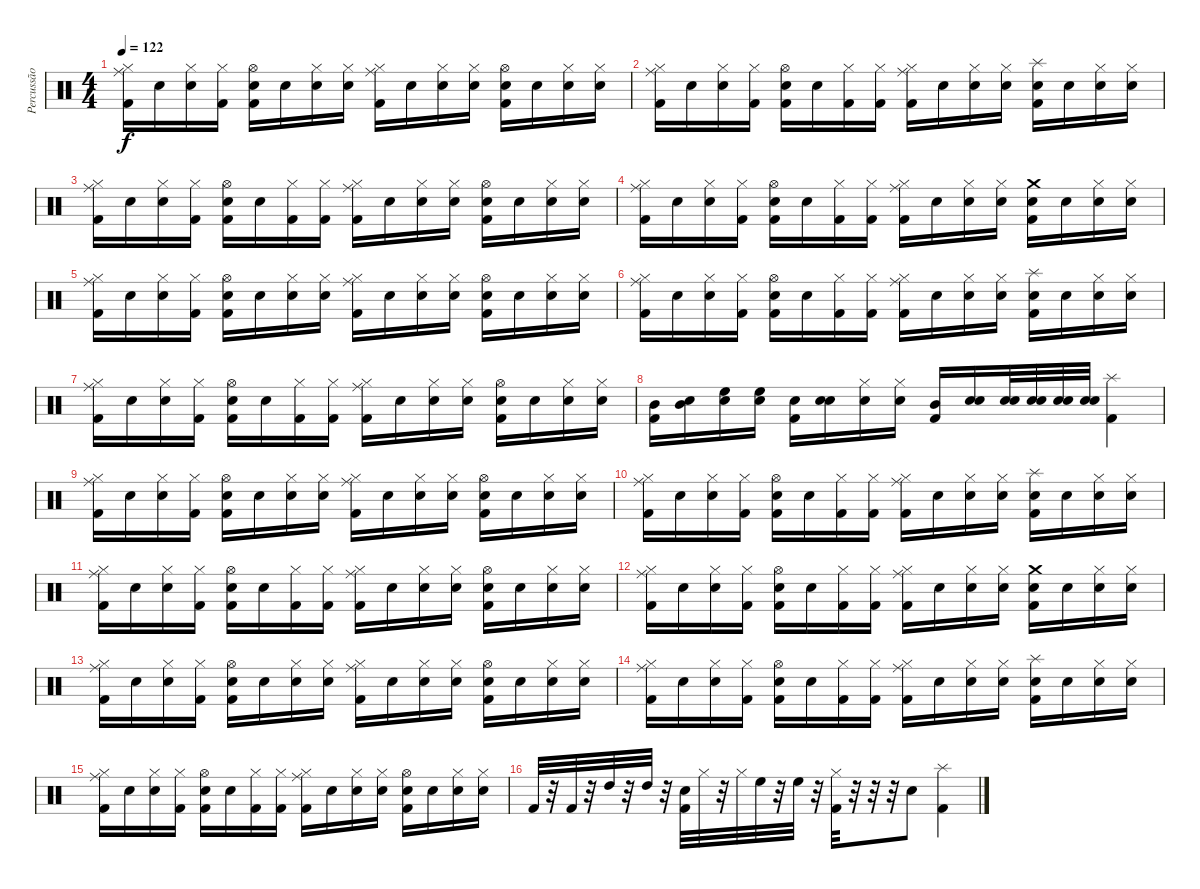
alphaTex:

\track ("Percussão" "Percussão") {instrument percussion}
\staff {score}
\articulation defaults
\ts (4 4)
\tempo 122
\clef neutral
\ks c
("Kick (hit) 2" "Hi-Hat (closed)" "Ride (middle)").16{dy f} "Snare (hit)".16 ("Snare (hit)" "Hi-Hat (closed)").16 ("Kick (hit) 2" "Hi-Hat (closed)").16 ("Kick (hit) 2" "Electric Snare (hit)" "Hi-Hat (open)").16 "Snare (hit)".16 ("Snare (hit)" "Hi-Hat (closed)").16 ("Snare (hit)" "Hi-Hat (closed)").16 ("Kick (hit) 2" "Hi-Hat (closed)" "Ride (middle)").16 "Snare (hit)".16 ("Snare (hit)" "Hi-Hat (closed)").16 ("Snare (hit)" "Hi-Hat (closed)").16 ("Kick (hit) 2" "Electric Snare (hit)" "Hi-Hat (open)").16 "Snare (hit)".16 ("Snare (hit)" "Hi-Hat (closed)").16 ("Snare (hit)" "Hi-Hat (closed)").16 |
("Kick (hit) 2" "Hi-Hat (closed)" "Ride (middle)").16 "Snare (hit)".16 ("Snare (hit)" "Hi-Hat (closed)").16 ("Kick (hit) 2" "Hi-Hat (closed)").16 ("Kick (hit) 2" "Electric Snare (hit)" "Hi-Hat (open)").16 "Snare (hit)".16 ("Kick (hit) 2" "Hi-Hat (closed)").16 ("Kick (hit) 2" "Hi-Hat (closed)").16 ("Kick (hit) 2" "Hi-Hat (closed)" "Ride (middle)").16 "Snare (hit)".16 ("Snare (hit)" "Hi-Hat (closed)").16 ("Snare (hit)" "Hi-Hat (closed)").16 ("Kick (hit) 2" "Electric Snare (hit)" "Splash (hit)").16 "Snare (hit)".16 ("Snare (hit)" "Hi-Hat (closed)").16 ("Snare (hit)" "Hi-Hat (closed)").16 |
("Kick (hit) 2" "Hi-Hat (closed)" "Ride (middle)").16 "Snare (hit)".16 ("Snare (hit)" "Hi-Hat (closed)").16 ("Kick (hit) 2" "Hi-Hat (closed)").16 ("Kick (hit) 2" "Electric Snare (hit)" "Hi-Hat (open)").16 "Snare (hit)".16 ("Kick (hit) 2" "Hi-Hat (closed)").16 ("Kick (hit) 2" "Hi-Hat (closed)").16 ("Kick (hit) 2" "Hi-Hat (closed)" "Ride (middle)").16 "Snare (hit)".16 ("Snare (hit)" "Hi-Hat (closed)").16 ("Snare (hit)" "Hi-Hat (closed)").16 ("Kick (hit) 2" "Electric Snare (hit)" "Hi-Hat (open)").16 "Snare (hit)".16 ("Snare (hit)" "Hi-Hat (closed)").16 ("Snare (hit)" "Hi-Hat (closed)").16 |
("Kick (hit) 2" "Hi-Hat (closed)" "Ride (middle)").16 "Snare (hit)".16 ("Snare (hit)" "Hi-Hat (closed)").16 ("Kick (hit) 2" "Hi-Hat (closed)").16 ("Kick (hit) 2" "Electric Snare (hit)" "Hi-Hat (open)").16 "Snare (hit)".16 ("Kick (hit) 2" "Hi-Hat (closed)").16 ("Kick (hit) 2" "Hi-Hat (closed)").16 ("Kick (hit) 2" "Hi-Hat (closed)" "Ride (middle)").16 "Snare (hit)".16 ("Snare (hit)" "Hi-Hat (closed)").16 ("Snare (hit)" "Hi-Hat (closed)").16 ("Kick (hit) 2" "Electric Snare (hit)" "Crash medium (hit)").16 "Snare (hit)".16 ("Snare (hit)" "Hi-Hat (closed)").16 ("Snare (hit)" "Hi-Hat (closed)").16 |
("Kick (hit) 2" "Hi-Hat (closed)" "Ride (middle)").16 "Snare (hit)".16 ("Snare (hit)" "Hi-Hat (closed)").16 ("Kick (hit) 2" "Hi-Hat (closed)").16 ("Kick (hit) 2" "Electric Snare (hit)" "Hi-Hat (open)").16 "Snare (hit)".16 ("Snare (hit)" "Hi-Hat (closed)").16 ("Snare (hit)" "Hi-Hat (closed)").16 ("Kick (hit) 2" "Hi-Hat (closed)" "Ride (middle)").16 "Snare (hit)".16 ("Snare (hit)" "Hi-Hat (closed)").16 ("Snare (hit)" "Hi-Hat (closed)").16 ("Kick (hit) 2" "Electric Snare (hit)" "Hi-Hat (open)").16 "Snare (hit)".16 ("Snare (hit)" "Hi-Hat (closed)").16 ("Snare (hit)" "Hi-Hat (closed)").16 |
("Kick (hit) 2" "Hi-Hat (closed)" "Ride (middle)").16 "Snare (hit)".16 ("Snare (hit)" "Hi-Hat (closed)").16 ("Kick (hit) 2" "Hi-Hat (closed)").16 ("Kick (hit) 2" "Electric Snare (hit)" "Hi-Hat (open)").16 "Snare (hit)".16 ("Kick (hit) 2" "Hi-Hat (closed)").16 ("Kick (hit) 2" "Hi-Hat (closed)").16 ("Kick (hit) 2" "Hi-Hat (closed)" "Ride (middle)").16 "Snare (hit)".16 ("Snare (hit)" "Hi-Hat (closed)").16 ("Snare (hit)" "Hi-Hat (closed)").16 ("Kick (hit) 2" "Electric Snare (hit)" "Splash (hit)").16 "Snare (hit)".16 ("Snare (hit)" "Hi-Hat (closed)").16 ("Snare (hit)" "Hi-Hat (closed)").16 |
("Kick (hit) 2" "Hi-Hat (closed)" "Ride (middle)").16 "Snare (hit)".16 ("Snare (hit)" "Hi-Hat (closed)").16 ("Kick (hit) 2" "Hi-Hat (closed)").16 ("Kick (hit) 2" "Electric Snare (hit)" "Hi-Hat (open)").16 "Snare (hit)".16 ("Kick (hit) 2" "Hi-Hat (closed)").16 ("Kick (hit) 2" "Hi-Hat (closed)").16 ("Kick (hit) 2" "Hi-Hat (closed)" "Ride (middle)").16 "Snare (hit)".16 ("Snare (hit)" "Hi-Hat (closed)").16 ("Snare (hit)" "Hi-Hat (closed)").16 ("Kick (hit) 2" "Electric Snare (hit)" "Hi-Hat (open)").16 "Snare (hit)".16 ("Snare (hit)" "Hi-Hat (closed)").16 ("Snare (hit)" "Hi-Hat (closed)").16 |
("Kick (hit) 2" "Mid Tom (hit)").16 ("Snare (hit)" "Mid Tom (hit)").16 ("Snare (hit)" "High Floor Tom (hit)").16 ("Snare (hit)" "High Floor Tom (hit)").16 ("Kick (hit) 2" "Electric Snare (hit)").16 ("Snare (hit)" "Electric Snare (hit)").16 ("Snare (hit)" "Hi-Hat (closed)").16 ("Snare (hit)" "Hi-Hat (closed)").16 ("Kick (hit) 2" "Mid Tom (hit)").16 ("Snare (hit)" "Snare (hit)").16 ("Snare (hit)" "Electric Snare (hit)").32 ("Snare (hit)" "Electric Snare (hit)").32 ("Snare (hit)" "Electric Snare (hit)").32 ("Snare (hit)" "Electric Snare (hit)").32 ("Kick (hit) 2" "Splash (hit)").4 |
("Kick (hit) 2" "Hi-Hat (closed)" "Ride (middle)").16 "Snare (hit)".16 ("Snare (hit)" "Hi-Hat (closed)").16 ("Kick (hit) 2" "Hi-Hat (closed)").16 ("Kick (hit) 2" "Electric Snare (hit)" "Hi-Hat (open)").16 "Snare (hit)".16 ("Snare (hit)" "Hi-Hat (closed)").16 ("Snare (hit)" "Hi-Hat (closed)").16 ("Kick (hit) 2" "Hi-Hat (closed)" "Ride (middle)").16 "Snare (hit)".16 ("Snare (hit)" "Hi-Hat (closed)").16 ("Snare (hit)" "Hi-Hat (closed)").16 ("Kick (hit) 2" "Electric Snare (hit)" "Hi-Hat (open)").16 "Snare (hit)".16 ("Snare (hit)" "Hi-Hat (closed)").16 ("Snare (hit)" "Hi-Hat (closed)").16 |
("Kick (hit) 2" "Hi-Hat (closed)" "Ride (middle)").16 "Snare (hit)".16 ("Snare (hit)" "Hi-Hat (closed)").16 ("Kick (hit) 2" "Hi-Hat (closed)").16 ("Kick (hit) 2" "Electric Snare (hit)" "Hi-Hat (open)").16 "Snare (hit)".16 ("Kick (hit) 2" "Hi-Hat (closed)").16 ("Kick (hit) 2" "Hi-Hat (closed)").16 ("Kick (hit) 2" "Hi-Hat (closed)" "Ride (middle)").16 "Snare (hit)".16 ("Snare (hit)" "Hi-Hat (closed)").16 ("Snare (hit)" "Hi-Hat (closed)").16 ("Kick (hit) 2" "Electric Snare (hit)" "Splash (hit)").16 "Snare (hit)".16 ("Snare (hit)" "Hi-Hat (closed)").16 ("Snare (hit)" "Hi-Hat (closed)").16 |
("Kick (hit) 2" "Hi-Hat (closed)" "Ride (middle)").16 "Snare (hit)".16 ("Snare (hit)" "Hi-Hat (closed)").16 ("Kick (hit) 2" "Hi-Hat (closed)").16 ("Kick (hit) 2" "Electric Snare (hit)" "Hi-Hat (open)").16 "Snare (hit)".16 ("Kick (hit) 2" "Hi-Hat (closed)").16 ("Kick (hit) 2" "Hi-Hat (closed)").16 ("Kick (hit) 2" "Hi-Hat (closed)" "Ride (middle)").16 "Snare (hit)".16 ("Snare (hit)" "Hi-Hat (closed)").16 ("Snare (hit)" "Hi-Hat (closed)").16 ("Kick (hit) 2" "Electric Snare (hit)" "Hi-Hat (open)").16 "Snare (hit)".16 ("Snare (hit)" "Hi-Hat (closed)").16 ("Snare (hit)" "Hi-Hat (closed)").16 |
("Kick (hit) 2" "Hi-Hat (closed)" "Ride (middle)").16 "Snare (hit)".16 ("Snare (hit)" "Hi-Hat (closed)").16 ("Kick (hit) 2" "Hi-Hat (closed)").16 ("Kick (hit) 2" "Electric Snare (hit)" "Hi-Hat (open)").16 "Snare (hit)".16 ("Kick (hit) 2" "Hi-Hat (closed)").16 ("Kick (hit) 2" "Hi-Hat (closed)").16 ("Kick (hit) 2" "Hi-Hat (closed)" "Ride (middle)").16 "Snare (hit)".16 ("Snare (hit)" "Hi-Hat (closed)").16 ("Snare (hit)" "Hi-Hat (closed)").16 ("Kick (hit) 2" "Electric Snare (hit)" "Crash medium (hit)").16 "Snare (hit)".16 ("Snare (hit)" "Hi-Hat (closed)").16 ("Snare (hit)" "Hi-Hat (closed)").16 |
("Kick (hit) 2" "Hi-Hat (closed)" "Ride (middle)").16 "Snare (hit)".16 ("Snare (hit)" "Hi-Hat (closed)").16 ("Kick (hit) 2" "Hi-Hat (closed)").16 ("Kick (hit) 2" "Electric Snare (hit)" "Hi-Hat (open)").16 "Snare (hit)".16 ("Snare (hit)" "Hi-Hat (closed)").16 ("Snare (hit)" "Hi-Hat (closed)").16 ("Kick (hit) 2" "Hi-Hat (closed)" "Ride (middle)").16 "Snare (hit)".16 ("Snare (hit)" "Hi-Hat (closed)").16 ("Snare (hit)" "Hi-Hat (closed)").16 ("Kick (hit) 2" "Electric Snare (hit)" "Hi-Hat (open)").16 "Snare (hit)".16 ("Snare (hit)" "Hi-Hat (closed)").16 ("Snare (hit)" "Hi-Hat (closed)").16 |
("Kick (hit) 2" "Hi-Hat (closed)" "Ride (middle)").16 "Snare (hit)".16 ("Snare (hit)" "Hi-Hat (closed)").16 ("Kick (hit) 2" "Hi-Hat (closed)").16 ("Kick (hit) 2" "Electric Snare (hit)" "Hi-Hat (open)").16 "Snare (hit)".16 ("Kick (hit) 2" "Hi-Hat (closed)").16 ("Kick (hit) 2" "Hi-Hat (closed)").16 ("Kick (hit) 2" "Hi-Hat (closed)" "Ride (middle)").16 "Snare (hit)".16 ("Snare (hit)" "Hi-Hat (closed)").16 ("Snare (hit)" "Hi-Hat (closed)").16 ("Kick (hit) 2" "Electric Snare (hit)" "Splash (hit)").16 "Snare (hit)".16 ("Snare (hit)" "Hi-Hat (closed)").16 ("Snare (hit)" "Hi-Hat (closed)").16 |
("Kick (hit) 2" "Hi-Hat (closed)" "Ride (middle)").16 "Snare (hit)".16 ("Snare (hit)" "Hi-Hat (closed)").16 ("Kick (hit) 2" "Hi-Hat (closed)").16 ("Kick (hit) 2" "Electric Snare (hit)" "Hi-Hat (open)").16 "Snare (hit)".16 ("Kick (hit) 2" "Hi-Hat (closed)").16 ("Kick (hit) 2" "Hi-Hat (closed)").16 ("Kick (hit) 2" "Hi-Hat (closed)" "Ride (middle)").16 "Snare (hit)".16 ("Snare (hit)" "Hi-Hat (closed)").16 ("Snare (hit)" "Hi-Hat (closed)").16 ("Kick (hit) 2" "Electric Snare (hit)" "Hi-Hat (open)").16 "Snare (hit)".16 ("Snare (hit)" "Hi-Hat (closed)").16 ("Snare (hit)" "Hi-Hat (closed)").16 |
"Kick (hit) 2".32 r.32 "Kick (hit) 2".32 r.32 "High Tom (hit)".32 r.32 "High Tom (hit)".32 r.32 ("Kick (hit) 2" "Electric Snare (hit)").32 "Hi-Hat (closed)".32 r.32 "Hi-Hat (closed)".32 "High Floor Tom (hit)".32 r.32 "High Floor Tom (hit)".32 r.32 ("Kick (hit) 2" "Hi-Hat (closed)").32 r.32 r.32 r.32 "Electric Snare (hit)".8 ("Kick (hit) 2" "Splash (hit)").4
